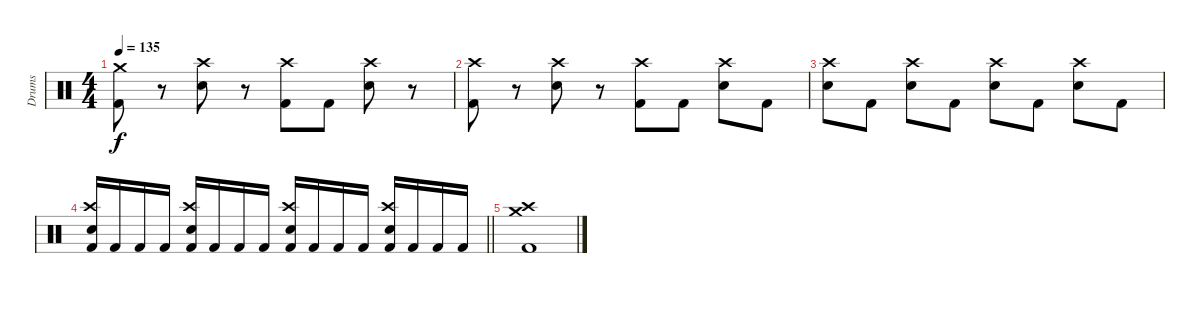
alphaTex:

\track ("Drums" "Drums") {instrument percussion}
\staff {score}
\articulation defaults
\ts (4 4)
\tempo 135
\clef neutral
\ks c
("Crash medium (hit)" "Kick (hit) 2").8{dy f} r.8 ("Crash high (hit)" "Electric Snare (hit)").8 r.8 ("Crash high (hit)" "Kick (hit) 2").8 "Kick (hit) 2".8 ("Crash high (hit)" "Electric Snare (hit)").8 r.8 |
("Crash high (hit)" "Kick (hit) 2").8 r.8 ("Crash high (hit)" "Electric Snare (hit)").8 r.8 ("Crash high (hit)" "Kick (hit) 2").8 "Kick (hit) 2".8 ("Crash high (hit)" "Electric Snare (hit)").8 "Kick (hit) 2".8 |
("Crash high (hit)" "Electric Snare (hit)").8 "Kick (hit) 2".8 ("Crash high (hit)" "Electric Snare (hit)").8 "Kick (hit) 2".8 ("Crash high (hit)" "Electric Snare (hit)").8 "Kick (hit) 2".8 ("Crash high (hit)" "Electric Snare (hit)").8 "Kick (hit) 2".8 |
\barLineRight lightlight
("Crash high (hit)" "Electric Snare (hit)" "Kick (hit) 2").16 "Kick (hit) 2".16 "Kick (hit) 2".16 "Kick (hit) 2".16 ("Crash high (hit)" "Electric Snare (hit)" "Kick (hit) 2").16 "Kick (hit) 2".16 "Kick (hit) 2".16 "Kick (hit) 2".16 ("Crash high (hit)" "Electric Snare (hit)" "Kick (hit) 2").16 "Kick (hit) 2".16 "Kick (hit) 2".16 "Kick (hit) 2".16 ("Crash high (hit)" "Electric Snare (hit)" "Kick (hit) 2").16 "Kick (hit) 2".16 "Kick (hit) 2".16 "Kick (hit) 2".16 |
("Crash medium (hit)" "Crash high (hit)" "Kick (hit) 2").1
